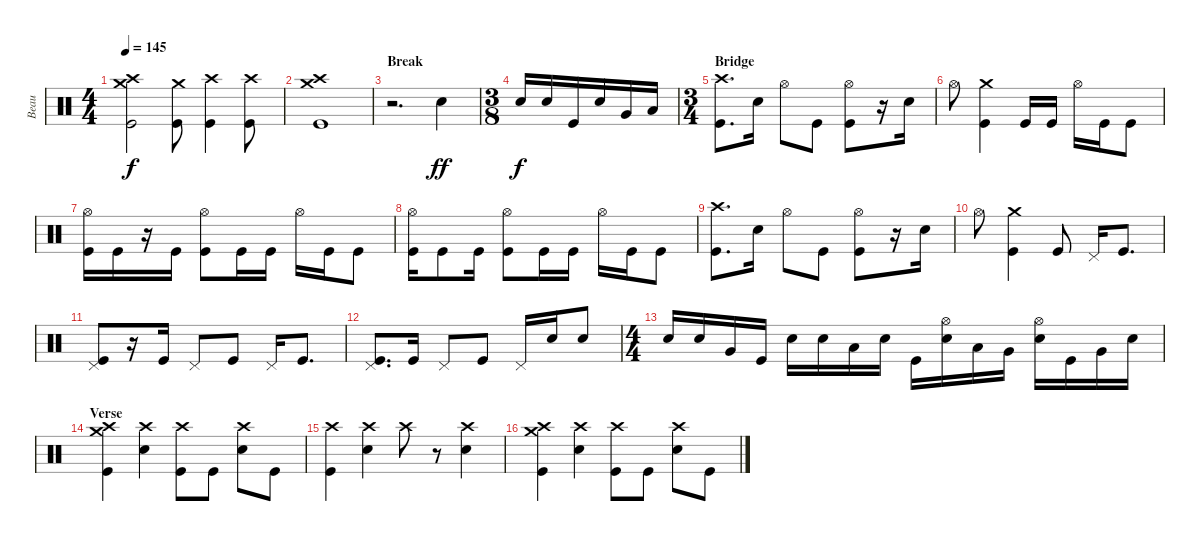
\track ("Beau" "Beau") {instrument percussion}
\staff {score}
\articulation defaults
\ts (4 4)
\tempo 145
\clef neutral
\ks c
("Kick (hit)" "Crash medium (hit)" "Crash high (hit)").2{dy f} ("Kick (hit)" "Crash medium (hit)").8 ("Kick (hit)" "Crash high (hit)").4 ("Kick (hit)" "Crash high (hit)").8 |
("Kick (hit)" "Crash medium (hit)" "Crash high (hit)").1 |
\section ("" "Break")
r.2{d} "Snare (hit) 2".4{dy ff} |
\ts (3 8)
"Snare (hit) 2".16{dy f} "Snare (hit) 2".16 "Kick (hit)".16 "Snare (hit) 2".16 "Very Low Tom (hit)".16 "Low Floor Tom (hit)".16 |
\ts (3 4)
\section ("" "Bridge")
("Kick (hit)" "Crash high (hit)").8{d} "Snare (hit) 2".16 "Hi-Hat (open)".8 "Kick (hit)".8 ("Kick (hit)" "Hi-Hat (open)").8 r.16 "Snare (hit) 2".16 |
"Hi-Hat (open)".8 ("Kick (hit)" "Crash medium (hit)").4 "Kick (hit)".16 "Kick (hit)".16 "Hi-Hat (open)".16 "Kick (hit)".16 "Kick (hit)".8 |
("Kick (hit)" "Hi-Hat (open)").16 "Kick (hit)".16 r.16 "Kick (hit)".16 ("Kick (hit)" "Hi-Hat (open)").8 "Kick (hit)".16 "Kick (hit)".16 "Hi-Hat (open)".16 "Kick (hit)".16 "Kick (hit)".8 |
("Kick (hit)" "Hi-Hat (open)").16 "Kick (hit)".8 "Kick (hit)".16 ("Kick (hit)" "Hi-Hat (open)").8 "Kick (hit)".16 "Kick (hit)".16 "Hi-Hat (open)".16 "Kick (hit)".16 "Kick (hit)".8 |
("Kick (hit)" "Crash high (hit)").8{d} "Snare (hit) 2".16 "Hi-Hat (open)".8 "Kick (hit)".8 ("Kick (hit)" "Hi-Hat (open)").8 r.16 "Snare (hit) 2".16 |
"Hi-Hat (open)".8 ("Kick (hit)" "Crash medium (hit)").4 "Kick (hit)".8 "Pedal Hi-Hat (hit)".16 "Kick (hit)".8{d} |
("Kick (hit)" "Pedal Hi-Hat (hit)").8 r.16 "Kick (hit)".16 "Pedal Hi-Hat (hit)".8 "Kick (hit)".8 "Pedal Hi-Hat (hit)".16 "Kick (hit)".8{d} |
("Kick (hit)" "Pedal Hi-Hat (hit)").8{d} "Kick (hit)".16 "Pedal Hi-Hat (hit)".8 "Kick (hit)".8 "Pedal Hi-Hat (hit)".16 "Snare (hit) 2".16 "Snare (hit) 2".8 |
\ts (4 4)
"Snare (hit) 2".16 "Snare (hit) 2".16 "Very Low Tom (hit)".16 "Kick (hit)".16 "Snare (hit) 2".16 "Snare (hit) 2".16 "Low Tom (hit)".16 "Snare (hit) 2".16 "Kick (hit)".16 ("Snare (hit) 2" "Hi-Hat (open)").16 "Low Tom (hit)".16 "Very Low Tom (hit)".16 ("Snare (hit) 2" "Hi-Hat (open)").16 "Kick (hit)".16 "Very Low Tom (hit)".16 "Snare (hit) 2".16 |
\section ("" "Verse")
("Kick (hit)" "Crash medium (hit)" "Crash high (hit)").4 ("Snare (hit) 2" "Crash high (hit)").4 ("Kick (hit)" "Crash high (hit)").8 "Kick (hit)".8 ("Snare (hit) 2" "Crash high (hit)").8 "Kick (hit)".8 |
("Kick (hit)" "Crash high (hit)").4 ("Snare (hit) 2" "Crash high (hit)").4 "Crash high (hit)".8 r.8 ("Snare (hit) 2" "Crash high (hit)").4 |
("Kick (hit)" "Crash medium (hit)" "Crash high (hit)").4 ("Snare (hit) 2" "Crash high (hit)").4 ("Kick (hit)" "Crash high (hit)").8 "Kick (hit)".8 ("Snare (hit) 2" "Crash high (hit)").8 "Kick (hit)".8
